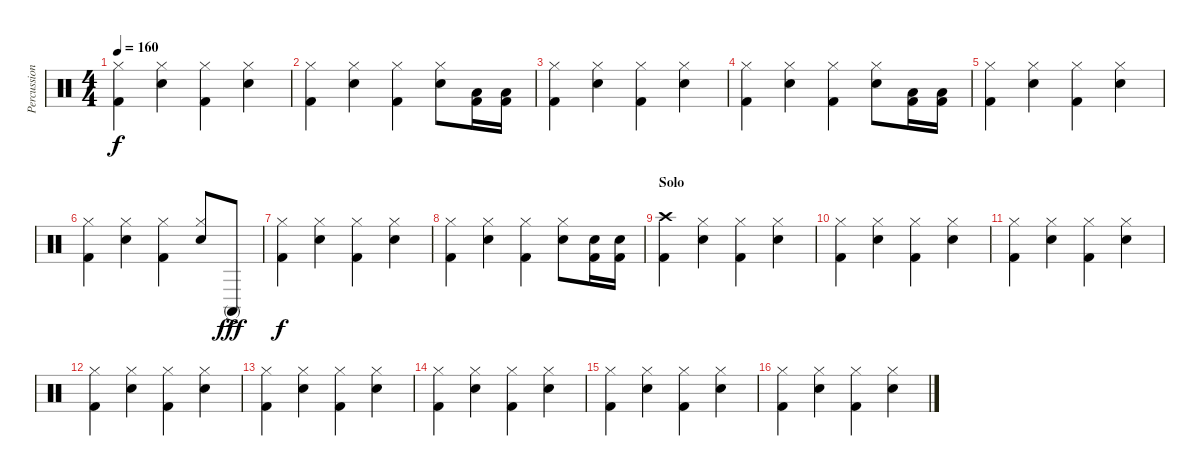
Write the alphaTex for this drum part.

\track ("Percussions" "Percussion") {instrument percussion}
\staff {score}
\articulation defaults
\ts (4 4)
\tempo 160
\clef neutral
\ks c
("Hi-Hat (closed)" "Kick (hit) 2").4{dy f} ("Hi-Hat (closed)" "Snare (hit) 2").4 ("Hi-Hat (closed)" "Kick (hit) 2").4 ("Hi-Hat (closed)" "Snare (hit) 2").4 |
("Hi-Hat (closed)" "Kick (hit) 2").4 ("Hi-Hat (closed)" "Snare (hit) 2").4 ("Hi-Hat (closed)" "Kick (hit) 2").4 ("Hi-Hat (closed)" "Snare (hit) 2").8 ("Low Tom (hit)" "Kick (hit) 2").16 ("Low Floor Tom (hit)" "Kick (hit) 2").16 |
("Hi-Hat (closed)" "Kick (hit) 2").4 ("Hi-Hat (closed)" "Snare (hit) 2").4 ("Hi-Hat (closed)" "Kick (hit) 2").4 ("Hi-Hat (closed)" "Snare (hit) 2").4 |
("Hi-Hat (closed)" "Kick (hit) 2").4 ("Hi-Hat (closed)" "Snare (hit) 2").4 ("Hi-Hat (closed)" "Kick (hit) 2").4 ("Hi-Hat (closed)" "Snare (hit) 2").8 ("Low Tom (hit)" "Kick (hit) 2").16 ("Low Floor Tom (hit)" "Kick (hit) 2").16 |
("Hi-Hat (closed)" "Kick (hit) 2").4 ("Hi-Hat (closed)" "Snare (hit) 2").4 ("Hi-Hat (closed)" "Kick (hit) 2").4 ("Hi-Hat (closed)" "Snare (hit) 2").4 |
("Hi-Hat (closed)" "Kick (hit) 2").4 ("Hi-Hat (closed)" "Snare (hit) 2").4 ("Hi-Hat (closed)" "Kick (hit) 2").4 ("Hi-Hat (closed)" "Snare (hit) 2").8 "Conga high (mute)"{ac}.8{dy fff} |
("Hi-Hat (closed)" "Kick (hit) 2").4{dy f} ("Hi-Hat (closed)" "Snare (hit) 2").4 ("Hi-Hat (closed)" "Kick (hit) 2").4 ("Hi-Hat (closed)" "Snare (hit) 2").4 |
("Hi-Hat (closed)" "Kick (hit) 2").4 ("Hi-Hat (closed)" "Snare (hit) 2").4 ("Hi-Hat (closed)" "Kick (hit) 2").4 ("Hi-Hat (closed)" "Snare (hit) 2").8 ("Snare (hit) 2" "Kick (hit) 2").16 ("Snare (hit) 2" "Kick (hit) 2").16 |
\section ("" "Solo")
("Crash high (hit)" "Kick (hit) 2").4 ("Hi-Hat (closed)" "Snare (hit) 2").4 ("Hi-Hat (closed)" "Kick (hit) 2").4 ("Hi-Hat (closed)" "Snare (hit) 2").4 |
("Hi-Hat (closed)" "Kick (hit) 2").4 ("Hi-Hat (closed)" "Snare (hit) 2").4 ("Hi-Hat (closed)" "Kick (hit) 2").4 ("Hi-Hat (closed)" "Snare (hit) 2").4 |
("Hi-Hat (closed)" "Kick (hit) 2").4 ("Hi-Hat (closed)" "Snare (hit) 2").4 ("Hi-Hat (closed)" "Kick (hit) 2").4 ("Hi-Hat (closed)" "Snare (hit) 2").4 |
("Hi-Hat (closed)" "Kick (hit) 2").4 ("Hi-Hat (closed)" "Snare (hit) 2").4 ("Hi-Hat (closed)" "Kick (hit) 2").4 ("Hi-Hat (closed)" "Snare (hit) 2").4 |
("Hi-Hat (closed)" "Kick (hit) 2").4 ("Hi-Hat (closed)" "Snare (hit) 2").4 ("Hi-Hat (closed)" "Kick (hit) 2").4 ("Hi-Hat (closed)" "Snare (hit) 2").4 |
("Hi-Hat (closed)" "Kick (hit) 2").4 ("Hi-Hat (closed)" "Snare (hit) 2").4 ("Hi-Hat (closed)" "Kick (hit) 2").4 ("Hi-Hat (closed)" "Snare (hit) 2").4 |
("Hi-Hat (closed)" "Kick (hit) 2").4 ("Hi-Hat (closed)" "Snare (hit) 2").4 ("Hi-Hat (closed)" "Kick (hit) 2").4 ("Hi-Hat (closed)" "Snare (hit) 2").4 |
("Hi-Hat (closed)" "Kick (hit) 2").4 ("Hi-Hat (closed)" "Snare (hit) 2").4 ("Hi-Hat (closed)" "Kick (hit) 2").4 ("Hi-Hat (closed)" "Snare (hit) 2").4
